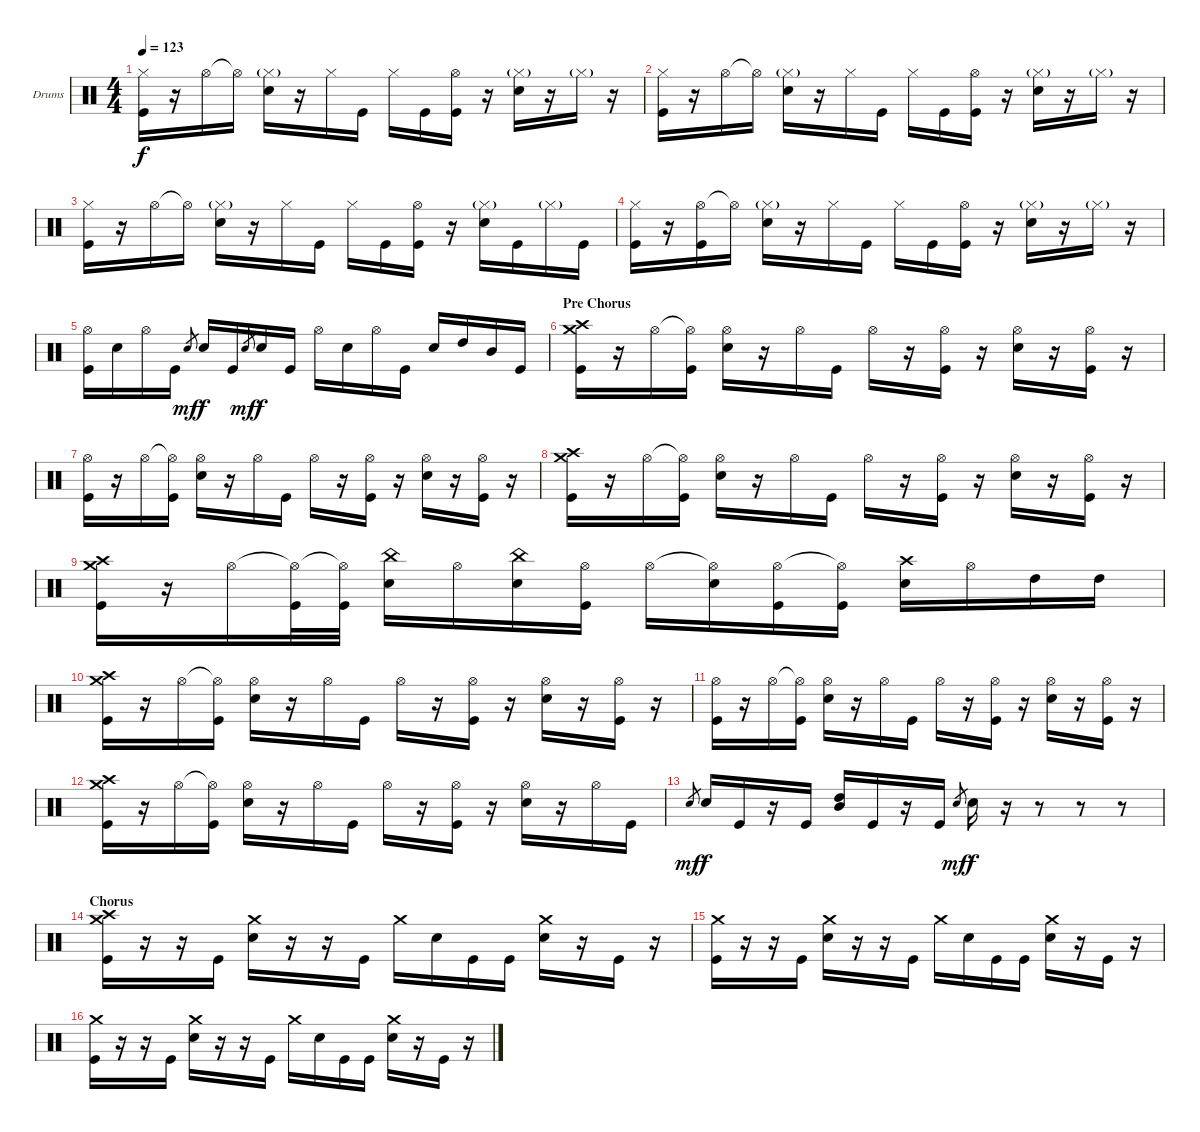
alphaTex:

\bracketExtendMode groupsimilarinstruments
\firstSystemTrackNameOrientation horizontal
\otherSystemsTrackNameOrientation horizontal
\track ("Drumkit" "Drums") {instrument percussion}
\staff {score}
\articulation defaults
\ts (4 4)
\tempo 123
\clef neutral
\ks c
("Hi-Hat (closed)" "Kick (hit)").16{dy f} r.16 "Hi-Hat (open)".16 "Hi-Hat (open)"{t}.16 ("Hi-Hat (closed)"{g} "Snare (hit) 2").16 r.16 "Hi-Hat (closed)".16 "Kick (hit)".16 "Hi-Hat (closed)".16 "Kick (hit)".16 ("Hi-Hat (open)" "Kick (hit)").16 r.16 ("Hi-Hat (closed)"{g} "Snare (hit) 2").16 r.16 "Hi-Hat (closed)"{g}.16 r.16 |
("Hi-Hat (closed)" "Kick (hit)").16 r.16 "Hi-Hat (open)".16 "Hi-Hat (open)"{t}.16 ("Hi-Hat (closed)"{g} "Snare (hit) 2").16 r.16 "Hi-Hat (closed)".16 "Kick (hit)".16 "Hi-Hat (closed)".16 "Kick (hit)".16 ("Hi-Hat (open)" "Kick (hit)").16 r.16 ("Hi-Hat (closed)"{g} "Snare (hit) 2").16 r.16 "Hi-Hat (closed)"{g}.16 r.16 |
("Hi-Hat (closed)" "Kick (hit)").16 r.16 "Hi-Hat (open)".16 "Hi-Hat (open)"{t}.16 ("Hi-Hat (closed)"{g} "Snare (hit) 2").16 r.16 "Hi-Hat (closed)".16 "Kick (hit)".16 "Hi-Hat (closed)".16 "Kick (hit)".16 ("Hi-Hat (open)" "Kick (hit)").16 r.16 ("Hi-Hat (closed)"{g} "Snare (hit) 2").16 "Kick (hit)".16 "Hi-Hat (closed)"{g}.16 "Kick (hit)".16 |
("Hi-Hat (closed)" "Kick (hit)").16 r.16 ("Hi-Hat (open)" "Kick (hit)").16 "Hi-Hat (open)"{t}.16 ("Hi-Hat (closed)"{g} "Snare (hit) 2").16 r.16 "Hi-Hat (closed)".16 "Kick (hit)".16 "Hi-Hat (closed)".16 "Kick (hit)".16 ("Hi-Hat (open)" "Kick (hit)").16 r.16 ("Hi-Hat (closed)"{g} "Snare (hit) 2").16 r.16 "Hi-Hat (closed)"{g}.16 r.16 |
("Hi-Hat (open)" "Kick (hit)").16 "Snare (hit) 2".16 "Hi-Hat (open)".16 "Kick (hit)".16 "Snare (hit) 2".8{gr dy mf} "Snare (hit) 2".16{dy f} "Kick (hit)".16 "Snare (hit) 2".8{gr dy mf} "Snare (hit) 2".16{dy f} "Kick (hit)".16 "Hi-Hat (open)".16 "Snare (hit) 2".16 "Hi-Hat (open)".16 "Kick (hit)".16 "Snare (hit) 2".16 "High Tom (hit)".16 "Mid Tom (hit)".16 "Kick (hit)".16 |
\section ("" "Pre Chorus")
("Crash medium (hit)" "Crash high (hit)" "Kick (hit)").16 r.16 "Hi-Hat (open)".16 ("Hi-Hat (open)"{t} "Kick (hit)").16 ("Hi-Hat (open)" "Snare (hit) 2").16 r.16 "Hi-Hat (open)".16 "Kick (hit)".16 "Hi-Hat (open)".16 r.16 ("Hi-Hat (open)" "Kick (hit)").16 r.16 ("Hi-Hat (open)" "Snare (hit) 2").16 r.16 ("Hi-Hat (open)" "Kick (hit)").16 r.16 |
("Hi-Hat (open)" "Kick (hit)").16 r.16 "Hi-Hat (open)".16 ("Hi-Hat (open)"{t} "Kick (hit)").16 ("Hi-Hat (open)" "Snare (hit) 2").16 r.16 "Hi-Hat (open)".16 "Kick (hit)".16 "Hi-Hat (open)".16 r.16 ("Hi-Hat (open)" "Kick (hit)").16 r.16 ("Hi-Hat (open)" "Snare (hit) 2").16 r.16 ("Hi-Hat (open)" "Kick (hit)").16 r.16 |
("Crash medium (hit)" "Crash high (hit)" "Kick (hit)").16 r.16 "Hi-Hat (open)".16 ("Hi-Hat (open)"{t} "Kick (hit)").16 ("Hi-Hat (open)" "Snare (hit) 2").16 r.16 "Hi-Hat (open)".16 "Kick (hit)".16 "Hi-Hat (open)".16 r.16 ("Hi-Hat (open)" "Kick (hit)").16 r.16 ("Hi-Hat (open)" "Snare (hit) 2").16 r.16 ("Hi-Hat (open)" "Kick (hit)").16 r.16 |
("Crash medium (hit)" "Crash high (hit)" "Kick (hit)").16 r.16 "Hi-Hat (open)".16 ("Hi-Hat (open)"{t} "Kick (hit)").32 ("Hi-Hat (open)"{t} "Kick (hit)").32 ("China (hit)" "Snare (hit) 2").16 "Hi-Hat (open)".16 ("China (hit)" "Snare (hit) 2").16 ("Hi-Hat (open)" "Kick (hit)").16 "Hi-Hat (open)".16 ("Hi-Hat (open)"{t} "Snare (hit) 2").16 ("Hi-Hat (open)" "Kick (hit)").16 ("Hi-Hat (open)"{t} "Kick (hit)").16 ("Crash high (hit)" "Snare (hit) 2").16 "Hi-Hat (open)".16 "High Tom (hit)".16 "High Tom (hit)".16 |
("Crash medium (hit)" "Crash high (hit)" "Kick (hit)").16 r.16 "Hi-Hat (open)".16 ("Hi-Hat (open)"{t} "Kick (hit)").16 ("Hi-Hat (open)" "Snare (hit) 2").16 r.16 "Hi-Hat (open)".16 "Kick (hit)".16 "Hi-Hat (open)".16 r.16 ("Hi-Hat (open)" "Kick (hit)").16 r.16 ("Hi-Hat (open)" "Snare (hit) 2").16 r.16 ("Hi-Hat (open)" "Kick (hit)").16 r.16 |
("Hi-Hat (open)" "Kick (hit)").16 r.16 "Hi-Hat (open)".16 ("Hi-Hat (open)"{t} "Kick (hit)").16 ("Hi-Hat (open)" "Snare (hit) 2").16 r.16 "Hi-Hat (open)".16 "Kick (hit)".16 "Hi-Hat (open)".16 r.16 ("Hi-Hat (open)" "Kick (hit)").16 r.16 ("Hi-Hat (open)" "Snare (hit) 2").16 r.16 ("Hi-Hat (open)" "Kick (hit)").16 r.16 |
("Crash medium (hit)" "Crash high (hit)" "Kick (hit)").16 r.16 "Hi-Hat (open)".16 ("Hi-Hat (open)"{t} "Kick (hit)").16 ("Hi-Hat (open)" "Snare (hit) 2").16 r.16 "Hi-Hat (open)".16 "Kick (hit)".16 "Hi-Hat (open)".16 r.16 ("Hi-Hat (open)" "Kick (hit)").16 r.16 ("Hi-Hat (open)" "Snare (hit) 2").16 r.16 "Hi-Hat (open)".16 "Kick (hit)".16 |
"Snare (hit) 2".8{gr dy mf} "Snare (hit) 2".16{dy f} "Kick (hit)".16 r.16 "Kick (hit)".16 ("High Tom (hit)" "Mid Tom (hit)").16 "Kick (hit)".16 r.16 "Kick (hit)".16 "Snare (hit) 2".8{gr dy mf} "Snare (hit) 2".16{dy f} r.16 r.8 r.8 r.8 |
\section ("" "Chorus")
("Crash medium (hit)" "Crash high (hit)" "Kick (hit)").16 r.16 r.16 "Kick (hit)".16 ("Crash medium (hit)" "Snare (hit) 2").16 r.16 r.16 "Kick (hit)".16 "Crash medium (hit)".16 "Snare (hit) 2".16 "Kick (hit)".16 "Kick (hit)".16 ("Crash medium (hit)" "Snare (hit) 2").16 r.16 "Kick (hit)".16 r.16 |
("Crash medium (hit)" "Kick (hit)").16 r.16 r.16 "Kick (hit)".16 ("Crash medium (hit)" "Snare (hit) 2").16 r.16 r.16 "Kick (hit)".16 "Crash medium (hit)".16 "Snare (hit) 2".16 "Kick (hit)".16 "Kick (hit)".16 ("Crash medium (hit)" "Snare (hit) 2").16 r.16 "Kick (hit)".16 r.16 |
("Crash medium (hit)" "Kick (hit)").16 r.16 r.16 "Kick (hit)".16 ("Crash medium (hit)" "Snare (hit) 2").16 r.16 r.16 "Kick (hit)".16 "Crash medium (hit)".16 "Snare (hit) 2".16 "Kick (hit)".16 "Kick (hit)".16 ("Crash medium (hit)" "Snare (hit) 2").16 r.16 "Kick (hit)".16 r.16
